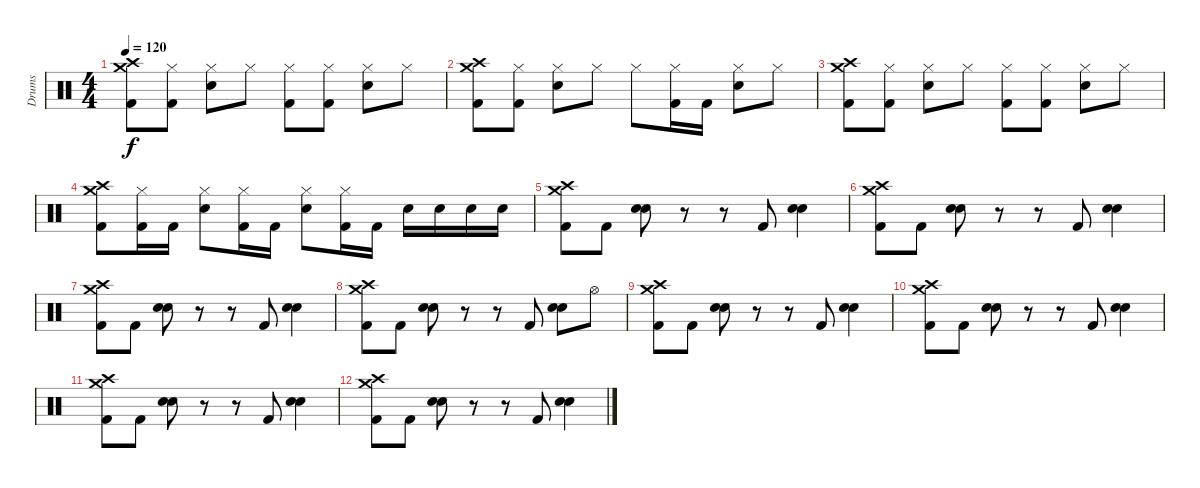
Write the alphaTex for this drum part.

\track ("Drums" "Drums") {instrument percussion}
\staff {score}
\articulation defaults
\ts (4 4)
\tempo 120
\clef neutral
\ks c
("Crash high (hit)" "Crash medium (hit)" "Kick (hit) 2").8{dy f} ("Hi-Hat (closed)" "Kick (hit) 2").8 ("Hi-Hat (closed)" "Snare (hit) 2").8 "Hi-Hat (closed)".8 ("Hi-Hat (closed)" "Kick (hit) 2").8 ("Hi-Hat (closed)" "Kick (hit) 2").8 ("Hi-Hat (closed)" "Snare (hit) 2").8 "Hi-Hat (closed)".8 |
("Crash high (hit)" "Crash medium (hit)" "Kick (hit) 2").8 ("Hi-Hat (closed)" "Kick (hit) 2").8 ("Hi-Hat (closed)" "Snare (hit) 2").8 "Hi-Hat (closed)".8 "Hi-Hat (closed)".8 ("Hi-Hat (closed)" "Kick (hit) 2").16 "Kick (hit) 2".16 ("Hi-Hat (closed)" "Snare (hit) 2").8 "Hi-Hat (closed)".8 |
("Crash high (hit)" "Crash medium (hit)" "Kick (hit) 2").8 ("Hi-Hat (closed)" "Kick (hit) 2").8 ("Hi-Hat (closed)" "Snare (hit) 2").8 "Hi-Hat (closed)".8 ("Hi-Hat (closed)" "Kick (hit) 2").8 ("Hi-Hat (closed)" "Kick (hit) 2").8 ("Hi-Hat (closed)" "Snare (hit) 2").8 "Hi-Hat (closed)".8 |
("Crash high (hit)" "Crash medium (hit)" "Kick (hit) 2").8 ("Hi-Hat (closed)" "Kick (hit) 2").16 "Kick (hit) 2".16 ("Hi-Hat (closed)" "Snare (hit) 2").8 ("Hi-Hat (closed)" "Kick (hit) 2").16 "Kick (hit) 2".16 ("Hi-Hat (closed)" "Snare (hit) 2").8 ("Hi-Hat (closed)" "Kick (hit) 2").16 "Kick (hit) 2".16 "Snare (hit) 2".16 "Snare (hit) 2".16 "Snare (hit) 2".16 "Snare (hit) 2".16 |
("Crash high (hit)" "Crash medium (hit)" "Kick (hit) 2").8 "Kick (hit) 2".8 ("Hand Clap (hit)" "Snare (hit) 2").8 r.8 r.8 "Kick (hit) 2".8 ("Hand Clap (hit)" "Snare (hit) 2").4 |
("Crash high (hit)" "Crash medium (hit)" "Kick (hit) 2").8 "Kick (hit) 2".8 ("Hand Clap (hit)" "Snare (hit) 2").8 r.8 r.8 "Kick (hit) 2".8 ("Hand Clap (hit)" "Snare (hit) 2").4 |
("Crash high (hit)" "Crash medium (hit)" "Kick (hit) 2").8 "Kick (hit) 2".8 ("Hand Clap (hit)" "Snare (hit) 2").8 r.8 r.8 "Kick (hit) 2".8 ("Hand Clap (hit)" "Snare (hit) 2").4 |
("Crash high (hit)" "Crash medium (hit)" "Kick (hit) 2").8 "Kick (hit) 2".8 ("Hand Clap (hit)" "Snare (hit) 2").8 r.8 r.8 "Kick (hit) 2".8 ("Hand Clap (hit)" "Snare (hit) 2").8 "Hi-Hat (open)".8 |
("Crash high (hit)" "Crash medium (hit)" "Kick (hit) 2").8 "Kick (hit) 2".8 ("Hand Clap (hit)" "Snare (hit) 2").8 r.8 r.8 "Kick (hit) 2".8 ("Hand Clap (hit)" "Snare (hit) 2").4 |
("Crash high (hit)" "Crash medium (hit)" "Kick (hit) 2").8 "Kick (hit) 2".8 ("Hand Clap (hit)" "Snare (hit) 2").8 r.8 r.8 "Kick (hit) 2".8 ("Hand Clap (hit)" "Snare (hit) 2").4 |
("Crash high (hit)" "Crash medium (hit)" "Kick (hit) 2").8 "Kick (hit) 2".8 ("Hand Clap (hit)" "Snare (hit) 2").8 r.8 r.8 "Kick (hit) 2".8 ("Hand Clap (hit)" "Snare (hit) 2").4 |
("Crash high (hit)" "Crash medium (hit)" "Kick (hit) 2").8 "Kick (hit) 2".8 ("Hand Clap (hit)" "Snare (hit) 2").8 r.8 r.8 "Kick (hit) 2".8 ("Hand Clap (hit)" "Snare (hit) 2").4
